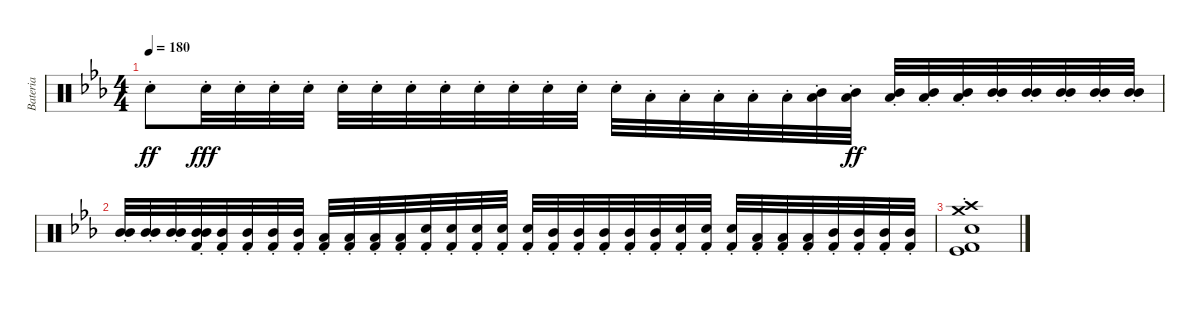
\track ("Bateria" "Bateria") {instrument percussion}
\staff {score}
\articulation defaults
\ts (4 4)
\tempo 180
\clef neutral
\ks eb "Snare (hit) 2"{st}.8{dy ff} "Snare (hit) 2"{st}.32{dy fff} "Snare (hit) 2"{st}.32 "Snare (hit) 2"{st}.32 "Snare (hit) 2"{st}.32 "Snare (hit) 2"{st}.32 "Snare (hit) 2"{st}.32 "Snare (hit) 2"{st}.32 "Snare (hit) 2"{st}.32 "Snare (hit) 2"{st}.32 "Snare (hit) 2"{st}.32 "Snare (hit) 2"{st}.32 "Snare (hit) 2"{st}.32 "Snare (hit) 2"{st}.32 "Low Tom (hit)"{st}.32 "Low Tom (hit)"{st}.32 "Low Tom (hit)"{st}.32 "Low Tom (hit)"{st}.32 "Low Tom (hit)"{st}.32
("Low Tom (hit)"{st} "Mid Tom (hit)"{st}).32 ("Low Tom (hit)"{st} "Mid Tom (hit)"{st}).32{dy ff} ("Low Tom (hit)"{st} "Mid Tom (hit)"{st}).32 ("Low Tom (hit)"{st} "Mid Tom (hit)"{st}).32 ("Low Tom (hit)"{st} "Mid Tom (hit)"{st}).32 ("Mid Tom (hit)"{st} "Mid Tom (hit)"{st}).32 ("Mid Tom (hit)"{st} "Mid Tom (hit)"{st}).32 ("Mid Tom (hit)"{st} "Mid Tom (hit)"{st}).32 ("Mid Tom (hit)"{st} "Mid Tom (hit)"{st}).32 ("Mid Tom (hit)"{st} "Mid Tom (hit)"{st}).32 |
("Mid Tom (hit)"{st} "Mid Tom (hit)"{st}).32 ("Mid Tom (hit)"{st} "Mid Tom (hit)"{st}).32 ("Mid Tom (hit)"{st} "Mid Tom (hit)"{st}).32 ("Mid Tom (hit)"{st} "Mid Tom (hit)"{st} "Kick (hit) 2"{st}).32 ("Mid Tom (hit)"{st} "Kick (hit) 2"{st}).32 ("Mid Tom (hit)"{st} "Kick (hit) 2"{st}).32 ("Mid Tom (hit)"{st} "Kick (hit) 2"{st}).32 ("Mid Tom (hit)"{st} "Kick (hit) 2"{st}).32 ("Low Tom (hit)"{st} "Kick (hit) 2"{st}).32 ("Low Tom (hit)"{st} "Kick (hit) 2"{st}).32 ("Low Tom (hit)"{st} "Kick (hit) 2"{st}).32 ("Low Tom (hit)"{st} "Kick (hit) 2"{st}).32 ("Snare (hit) 2"{st} "Kick (hit) 2"{st}).32 ("Snare (hit) 2"{st} "Kick (hit) 2"{st}).32 ("Snare (hit) 2"{st} "Kick (hit) 2"{st}).32 ("Snare (hit) 2"{st} "Kick (hit) 2"{st}).32 ("Snare (hit) 2"{st} "Kick (hit) 2"{st}).32 ("Mid Tom (hit)"{st} "Kick (hit) 2"{st}).32 ("Mid Tom (hit)"{st} "Kick (hit) 2"{st}).32 ("Mid Tom (hit)"{st} "Kick (hit) 2"{st}).32 ("Mid Tom (hit)"{st} "Kick (hit) 2"{st}).32 ("Mid Tom (hit)"{st} "Kick (hit) 2"{st}).32 ("Snare (hit) 2"{st} "Kick (hit) 2"{st}).32 ("Snare (hit) 2"{st} "Kick (hit) 2"{st}).32 ("Snare (hit) 2"{st} "Kick (hit) 2"{st}).32 ("Low Tom (hit)"{st} "Kick (hit) 2"{st}).32 ("Low Tom (hit)"{st} "Kick (hit) 2"{st}).32 ("Low Tom (hit)"{st} "Kick (hit) 2"{st}).32 ("Mid Tom (hit)"{st} "Kick (hit) 2"{st}).32 ("Mid Tom (hit)"{st} "Kick (hit) 2"{st}).32 ("Mid Tom (hit)"{st} "Kick (hit) 2"{st}).32 ("Mid Tom (hit)"{st} "Kick (hit) 2"{st}).32 |
("Kick (hit)"{st} "Kick (hit) 2"{st} "Snare (hit) 2"{st} "Crash medium (hit)"{st} "Crash high (hit)"{st}).1
